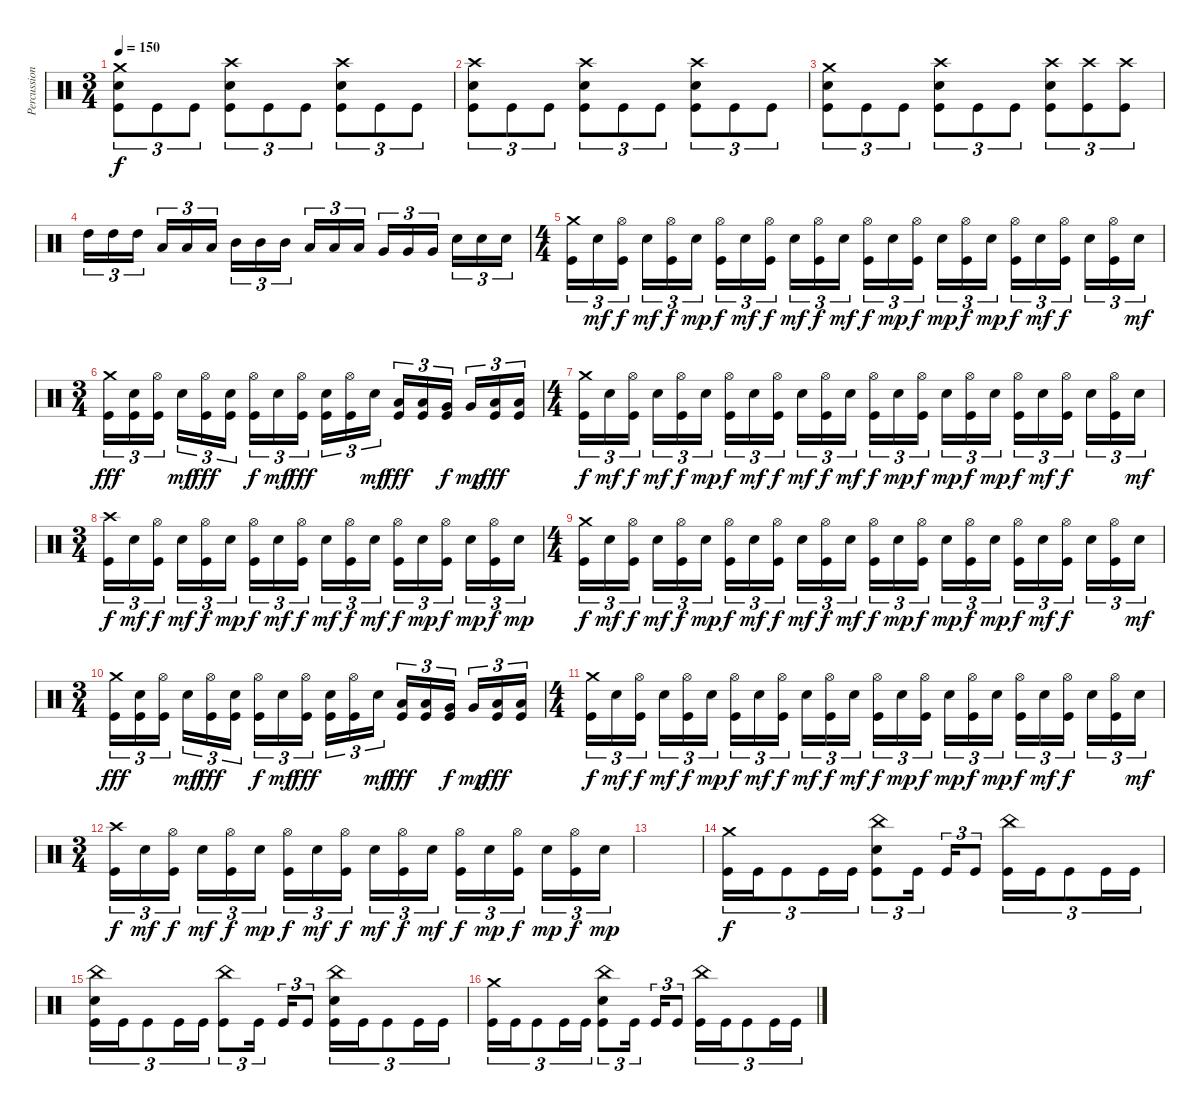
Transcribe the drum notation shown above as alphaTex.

\track ("Percussions" "Percussion") {instrument percussion}
\staff {score}
\articulation defaults
\ts (3 4)
\tempo 150
\clef neutral
\ks c
("Crash medium (hit)" "Snare (hit) 2" "Kick (hit)").8{tu (3 2) dy f} "Kick (hit)".8{tu (3 2)} "Kick (hit)".8{tu (3 2)} ("Crash high (hit)" "Snare (hit) 2" "Kick (hit)").8{tu (3 2)} "Kick (hit)".8{tu (3 2)} "Kick (hit)".8{tu (3 2)} ("Crash high (hit)" "Snare (hit) 2" "Kick (hit)").8{tu (3 2)} "Kick (hit)".8{tu (3 2)} "Kick (hit)".8{tu (3 2)} |
("Crash high (hit)" "Snare (hit) 2" "Kick (hit)").8{tu (3 2)} "Kick (hit)".8{tu (3 2)} "Kick (hit)".8{tu (3 2)} ("Crash high (hit)" "Snare (hit) 2" "Kick (hit)").8{tu (3 2)} "Kick (hit)".8{tu (3 2)} "Kick (hit)".8{tu (3 2)} ("Crash high (hit)" "Snare (hit) 2" "Kick (hit)").8{tu (3 2)} "Kick (hit)".8{tu (3 2)} "Kick (hit)".8{tu (3 2)} |
("Crash medium (hit)" "Snare (hit) 2" "Kick (hit)").8{tu (3 2)} "Kick (hit)".8{tu (3 2)} "Kick (hit)".8{tu (3 2)} ("Crash high (hit)" "Snare (hit) 2" "Kick (hit)").8{tu (3 2)} "Kick (hit)".8{tu (3 2)} "Kick (hit)".8{tu (3 2)} ("Crash high (hit)" "Snare (hit) 2" "Kick (hit)").8{tu (3 2)} ("Crash high (hit)" "Kick (hit)").8{tu (3 2)} ("Crash high (hit)" "Kick (hit)").8{tu (3 2)} |
"High Tom (hit)".16{tu (3 2)} "High Tom (hit)".16{tu (3 2)} "High Tom (hit)".16{tu (3 2)} "Low Tom (hit)".16{tu (3 2)} "Low Tom (hit)".16{tu (3 2)} "Low Tom (hit)".16{tu (3 2)} "Mid Tom (hit)".16{tu (3 2)} "Mid Tom (hit)".16{tu (3 2)} "Mid Tom (hit)".16{tu (3 2)} "Low Tom (hit)".16{tu (3 2)} "Low Tom (hit)".16{tu (3 2)} "Low Tom (hit)".16{tu (3 2)} "Very Low Tom (hit)".16{tu (3 2)} "Very Low Tom (hit)".16{tu (3 2)} "Very Low Tom (hit)".16{tu (3 2)} "Snare (hit) 2".16{tu (3 2)} "Snare (hit) 2".16{tu (3 2)} "Snare (hit) 2".16{tu (3 2)} |
\ts (4 4)
("Crash medium (hit)" "Kick (hit)").16{tu (3 2)} "Snare (hit) 2".16{tu (3 2) dy mf} ("Hi-Hat (open)" "Kick (hit)").16{tu (3 2) dy f} "Snare (hit) 2".16{tu (3 2) dy mf} ("Hi-Hat (open)" "Kick (hit)").16{tu (3 2) dy f} "Snare (hit) 2".16{tu (3 2) dy mp} ("Hi-Hat (open)" "Kick (hit)").16{tu (3 2) dy f} "Snare (hit) 2".16{tu (3 2) dy mf} ("Hi-Hat (open)" "Kick (hit)").16{tu (3 2) dy f} "Snare (hit) 2".16{tu (3 2) dy mf} ("Hi-Hat (open)" "Kick (hit)").16{tu (3 2) dy f} "Snare (hit) 2".16{tu (3 2) dy mf} ("Hi-Hat (open)" "Kick (hit)").16{tu (3 2) dy f} "Snare (hit) 2".16{tu (3 2) dy mp} ("Hi-Hat (open)" "Kick (hit)").16{tu (3 2) dy f} "Snare (hit) 2".16{tu (3 2) dy mp} ("Hi-Hat (open)" "Kick (hit)").16{tu (3 2) dy f} "Snare (hit) 2".16{tu (3 2) dy mp} ("Hi-Hat (open)" "Kick (hit)").16{tu (3 2) dy f} "Snare (hit) 2".16{tu (3 2) dy mf} ("Hi-Hat (open)" "Kick (hit)").16{tu (3 2) dy f} "Snare (hit) 2".16{tu (3 2)} ("Hi-Hat (open)" "Kick (hit)").16{tu (3 2)} "Snare (hit) 2".16{tu (3 2) dy mf} |
\ts (3 4)
("Crash medium (hit)" "Kick (hit)").16{tu (3 2) dy fff} ("Snare (hit) 2" "Kick (hit)").16{tu (3 2)} ("Hi-Hat (open)" "Kick (hit)").16{tu (3 2)} "Snare (hit) 2".16{tu (3 2) dy mf} ("Hi-Hat (open)" "Kick (hit)").16{tu (3 2) dy fff} ("Snare (hit) 2" "Kick (hit)").16{tu (3 2)} ("Hi-Hat (open)" "Kick (hit)").16{tu (3 2) dy f} "Snare (hit) 2".16{tu (3 2) dy mf} ("Hi-Hat (open)" "Kick (hit)").16{tu (3 2) dy fff} ("Snare (hit) 2" "Kick (hit)").16{tu (3 2)} ("Hi-Hat (open)" "Kick (hit)").16{tu (3 2)} "Snare (hit) 2".16{tu (3 2) dy mf} ("Low Tom (hit)" "Kick (hit)").16{tu (3 2) dy fff} ("Low Tom (hit)" "Kick (hit)").16{tu (3 2)} ("Very Low Tom (hit)" "Kick (hit)").16{tu (3 2) dy f} "Very Low Tom (hit)".16{tu (3 2) dy mp} ("Low Tom (hit)" "Kick (hit)").16{tu (3 2) dy fff} ("Low Tom (hit)" "Kick (hit)").16{tu (3 2)} |
\ts (4 4)
("Crash medium (hit)" "Kick (hit)").16{tu (3 2) dy f} "Snare (hit) 2".16{tu (3 2) dy mf} ("Hi-Hat (open)" "Kick (hit)").16{tu (3 2) dy f} "Snare (hit) 2".16{tu (3 2) dy mf} ("Hi-Hat (open)" "Kick (hit)").16{tu (3 2) dy f} "Snare (hit) 2".16{tu (3 2) dy mp} ("Hi-Hat (open)" "Kick (hit)").16{tu (3 2) dy f} "Snare (hit) 2".16{tu (3 2) dy mf} ("Hi-Hat (open)" "Kick (hit)").16{tu (3 2) dy f} "Snare (hit) 2".16{tu (3 2) dy mf} ("Hi-Hat (open)" "Kick (hit)").16{tu (3 2) dy f} "Snare (hit) 2".16{tu (3 2) dy mf} ("Hi-Hat (open)" "Kick (hit)").16{tu (3 2) dy f} "Snare (hit) 2".16{tu (3 2) dy mp} ("Hi-Hat (open)" "Kick (hit)").16{tu (3 2) dy f} "Snare (hit) 2".16{tu (3 2) dy mp} ("Hi-Hat (open)" "Kick (hit)").16{tu (3 2) dy f} "Snare (hit) 2".16{tu (3 2) dy mp} ("Hi-Hat (open)" "Kick (hit)").16{tu (3 2) dy f} "Snare (hit) 2".16{tu (3 2) dy mf} ("Hi-Hat (open)" "Kick (hit)").16{tu (3 2) dy f} "Snare (hit) 2".16{tu (3 2)} ("Hi-Hat (open)" "Kick (hit)").16{tu (3 2)} "Snare (hit) 2".16{tu (3 2) dy mf} |
\ts (3 4)
("Crash high (hit)" "Kick (hit)").16{tu (3 2) dy f} "Snare (hit) 2".16{tu (3 2) dy mf} ("Hi-Hat (open)" "Kick (hit)").16{tu (3 2) dy f} "Snare (hit) 2".16{tu (3 2) dy mf} ("Hi-Hat (open)" "Kick (hit)").16{tu (3 2) dy f} "Snare (hit) 2".16{tu (3 2) dy mp} ("Hi-Hat (open)" "Kick (hit)").16{tu (3 2) dy f} "Snare (hit) 2".16{tu (3 2) dy mf} ("Hi-Hat (open)" "Kick (hit)").16{tu (3 2) dy f} "Snare (hit) 2".16{tu (3 2) dy mf} ("Hi-Hat (open)" "Kick (hit)").16{tu (3 2) dy f} "Snare (hit) 2".16{tu (3 2) dy mf} ("Hi-Hat (open)" "Kick (hit)").16{tu (3 2) dy f} "Snare (hit) 2".16{tu (3 2) dy mp} ("Hi-Hat (open)" "Kick (hit)").16{tu (3 2) dy f} "Snare (hit) 2".16{tu (3 2) dy mp} ("Hi-Hat (open)" "Kick (hit)").16{tu (3 2) dy f} "Snare (hit) 2".16{tu (3 2) dy mp} |
\ts (4 4)
("Crash medium (hit)" "Kick (hit)").16{tu (3 2) dy f} "Snare (hit) 2".16{tu (3 2) dy mf} ("Hi-Hat (open)" "Kick (hit)").16{tu (3 2) dy f} "Snare (hit) 2".16{tu (3 2) dy mf} ("Hi-Hat (open)" "Kick (hit)").16{tu (3 2) dy f} "Snare (hit) 2".16{tu (3 2) dy mp} ("Hi-Hat (open)" "Kick (hit)").16{tu (3 2) dy f} "Snare (hit) 2".16{tu (3 2) dy mf} ("Hi-Hat (open)" "Kick (hit)").16{tu (3 2) dy f} "Snare (hit) 2".16{tu (3 2) dy mf} ("Hi-Hat (open)" "Kick (hit)").16{tu (3 2) dy f} "Snare (hit) 2".16{tu (3 2) dy mf} ("Hi-Hat (open)" "Kick (hit)").16{tu (3 2) dy f} "Snare (hit) 2".16{tu (3 2) dy mp} ("Hi-Hat (open)" "Kick (hit)").16{tu (3 2) dy f} "Snare (hit) 2".16{tu (3 2) dy mp} ("Hi-Hat (open)" "Kick (hit)").16{tu (3 2) dy f} "Snare (hit) 2".16{tu (3 2) dy mp} ("Hi-Hat (open)" "Kick (hit)").16{tu (3 2) dy f} "Snare (hit) 2".16{tu (3 2) dy mf} ("Hi-Hat (open)" "Kick (hit)").16{tu (3 2) dy f} "Snare (hit) 2".16{tu (3 2)} ("Hi-Hat (open)" "Kick (hit)").16{tu (3 2)} "Snare (hit) 2".16{tu (3 2) dy mf} |
\ts (3 4)
("Crash medium (hit)" "Kick (hit)").16{tu (3 2) dy fff} ("Snare (hit) 2" "Kick (hit)").16{tu (3 2)} ("Hi-Hat (open)" "Kick (hit)").16{tu (3 2)} "Snare (hit) 2".16{tu (3 2) dy mf} ("Hi-Hat (open)" "Kick (hit)").16{tu (3 2) dy fff} ("Snare (hit) 2" "Kick (hit)").16{tu (3 2)} ("Hi-Hat (open)" "Kick (hit)").16{tu (3 2) dy f} "Snare (hit) 2".16{tu (3 2) dy mf} ("Hi-Hat (open)" "Kick (hit)").16{tu (3 2) dy fff} ("Snare (hit) 2" "Kick (hit)").16{tu (3 2)} ("Hi-Hat (open)" "Kick (hit)").16{tu (3 2)} "Snare (hit) 2".16{tu (3 2) dy mf} ("Low Tom (hit)" "Kick (hit)").16{tu (3 2) dy fff} ("Low Tom (hit)" "Kick (hit)").16{tu (3 2)} ("Very Low Tom (hit)" "Kick (hit)").16{tu (3 2) dy f} "Very Low Tom (hit)".16{tu (3 2) dy mp} ("Low Tom (hit)" "Kick (hit)").16{tu (3 2) dy fff} ("Low Tom (hit)" "Kick (hit)").16{tu (3 2)} |
\ts (4 4)
("Crash medium (hit)" "Kick (hit)").16{tu (3 2) dy f} "Snare (hit) 2".16{tu (3 2) dy mf} ("Hi-Hat (open)" "Kick (hit)").16{tu (3 2) dy f} "Snare (hit) 2".16{tu (3 2) dy mf} ("Hi-Hat (open)" "Kick (hit)").16{tu (3 2) dy f} "Snare (hit) 2".16{tu (3 2) dy mp} ("Hi-Hat (open)" "Kick (hit)").16{tu (3 2) dy f} "Snare (hit) 2".16{tu (3 2) dy mf} ("Hi-Hat (open)" "Kick (hit)").16{tu (3 2) dy f} "Snare (hit) 2".16{tu (3 2) dy mf} ("Hi-Hat (open)" "Kick (hit)").16{tu (3 2) dy f} "Snare (hit) 2".16{tu (3 2) dy mf} ("Hi-Hat (open)" "Kick (hit)").16{tu (3 2) dy f} "Snare (hit) 2".16{tu (3 2) dy mp} ("Hi-Hat (open)" "Kick (hit)").16{tu (3 2) dy f} "Snare (hit) 2".16{tu (3 2) dy mp} ("Hi-Hat (open)" "Kick (hit)").16{tu (3 2) dy f} "Snare (hit) 2".16{tu (3 2) dy mp} ("Hi-Hat (open)" "Kick (hit)").16{tu (3 2) dy f} "Snare (hit) 2".16{tu (3 2) dy mf} ("Hi-Hat (open)" "Kick (hit)").16{tu (3 2) dy f} "Snare (hit) 2".16{tu (3 2)} ("Hi-Hat (open)" "Kick (hit)").16{tu (3 2)} "Snare (hit) 2".16{tu (3 2) dy mf} |
\ts (3 4)
("Crash high (hit)" "Kick (hit)").16{tu (3 2) dy f} "Snare (hit) 2".16{tu (3 2) dy mf} ("Hi-Hat (open)" "Kick (hit)").16{tu (3 2) dy f} "Snare (hit) 2".16{tu (3 2) dy mf} ("Hi-Hat (open)" "Kick (hit)").16{tu (3 2) dy f} "Snare (hit) 2".16{tu (3 2) dy mp} ("Hi-Hat (open)" "Kick (hit)").16{tu (3 2) dy f} "Snare (hit) 2".16{tu (3 2) dy mf} ("Hi-Hat (open)" "Kick (hit)").16{tu (3 2) dy f} "Snare (hit) 2".16{tu (3 2) dy mf} ("Hi-Hat (open)" "Kick (hit)").16{tu (3 2) dy f} "Snare (hit) 2".16{tu (3 2) dy mf} ("Hi-Hat (open)" "Kick (hit)").16{tu (3 2) dy f} "Snare (hit) 2".16{tu (3 2) dy mp} ("Hi-Hat (open)" "Kick (hit)").16{tu (3 2) dy f} "Snare (hit) 2".16{tu (3 2) dy mp} ("Hi-Hat (open)" "Kick (hit)").16{tu (3 2) dy f} "Snare (hit) 2".16{tu (3 2) dy mp} |
|
("Crash medium (hit)" "Kick (hit)").16{tu (3 2) dy f} "Kick (hit)".16{tu (3 2)} "Kick (hit)".8{tu (3 2)} "Kick (hit)".16{tu (3 2)} "Kick (hit)".16{tu (3 2)} ("China (hit)" "Snare (hit) 2" "Kick (hit)").8{tu (3 2)} "Kick (hit)".16{tu (3 2)} "Kick (hit)".16{tu (3 2)} "Kick (hit)".8{tu (3 2)} ("China (hit)" "Kick (hit)").16{tu (3 2)} "Kick (hit)".16{tu (3 2)} "Kick (hit)".8{tu (3 2)} "Kick (hit)".16{tu (3 2)} "Kick (hit)".16{tu (3 2)} |
("China (hit)" "Snare (hit) 2" "Kick (hit)").16{tu (3 2)} "Kick (hit)".16{tu (3 2)} "Kick (hit)".8{tu (3 2)} "Kick (hit)".16{tu (3 2)} "Kick (hit)".16{tu (3 2)} ("China (hit)" "Kick (hit)").8{tu (3 2)} "Kick (hit)".16{tu (3 2)} "Kick (hit)".16{tu (3 2)} "Kick (hit)".8{tu (3 2)} ("China (hit)" "Snare (hit) 2" "Kick (hit)").16{tu (3 2)} "Kick (hit)".16{tu (3 2)} "Kick (hit)".8{tu (3 2)} "Kick (hit)".16{tu (3 2)} "Kick (hit)".16{tu (3 2)} |
("Crash medium (hit)" "Kick (hit)").16{tu (3 2)} "Kick (hit)".16{tu (3 2)} "Kick (hit)".8{tu (3 2)} "Kick (hit)".16{tu (3 2)} "Kick (hit)".16{tu (3 2)} ("China (hit)" "Snare (hit) 2" "Kick (hit)").8{tu (3 2)} "Kick (hit)".16{tu (3 2)} "Kick (hit)".16{tu (3 2)} "Kick (hit)".8{tu (3 2)} ("China (hit)" "Kick (hit)").16{tu (3 2)} "Kick (hit)".16{tu (3 2)} "Kick (hit)".8{tu (3 2)} "Kick (hit)".16{tu (3 2)} "Kick (hit)".16{tu (3 2)}
